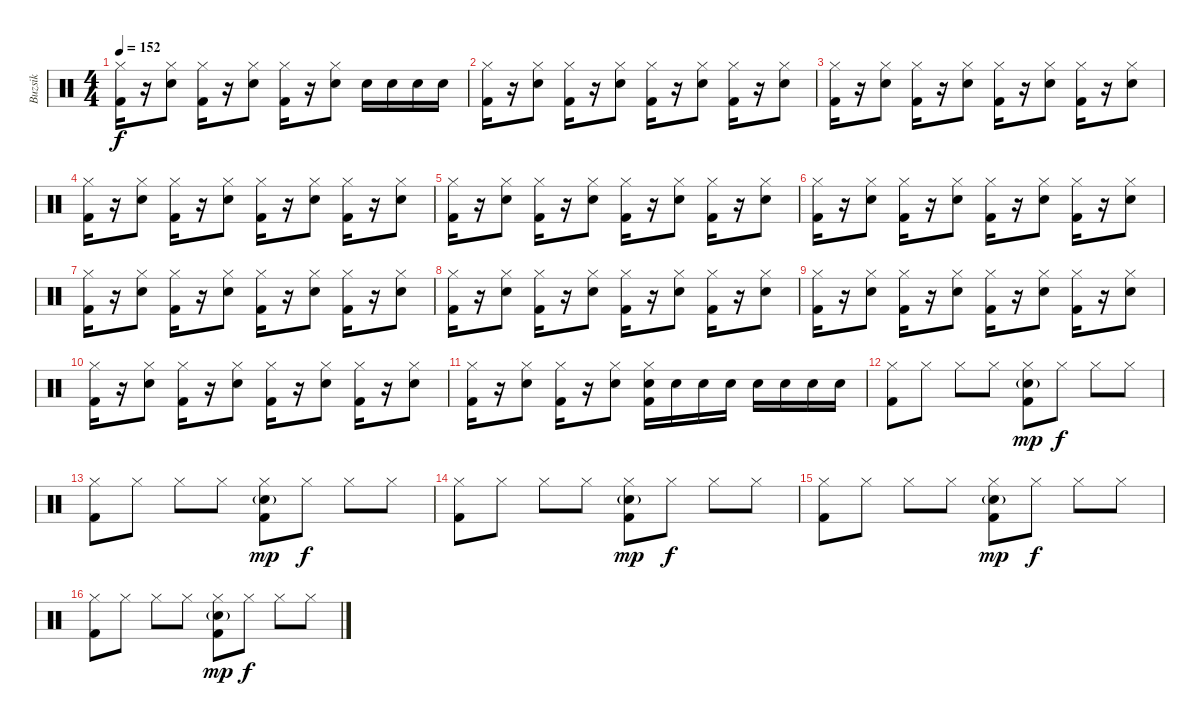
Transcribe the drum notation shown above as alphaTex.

\track ("Buzsik" "Buzsik") {instrument percussion}
\staff {score}
\articulation defaults
\ts (4 4)
\tempo 152
\clef neutral
\ks c
("Hi-Hat (closed)" "Kick (hit) 2").16{dy f} r.16 ("Hi-Hat (closed)" "Electric Snare (hit)").8 ("Hi-Hat (closed)" "Kick (hit) 2").16 r.16 ("Hi-Hat (closed)" "Electric Snare (hit)").8 ("Hi-Hat (closed)" "Kick (hit) 2").16 r.16 ("Hi-Hat (closed)" "Electric Snare (hit)").8 "Electric Snare (hit)".16 "Electric Snare (hit)".16 "Electric Snare (hit)".16 "Electric Snare (hit)".16 |
("Hi-Hat (closed)" "Kick (hit) 2").16 r.16 ("Hi-Hat (closed)" "Electric Snare (hit)").8 ("Hi-Hat (closed)" "Kick (hit) 2").16 r.16 ("Hi-Hat (closed)" "Electric Snare (hit)").8 ("Hi-Hat (closed)" "Kick (hit) 2").16 r.16 ("Hi-Hat (closed)" "Electric Snare (hit)").8 ("Hi-Hat (closed)" "Kick (hit) 2").16 r.16 ("Hi-Hat (closed)" "Electric Snare (hit)").8 |
("Hi-Hat (closed)" "Kick (hit) 2").16 r.16 ("Hi-Hat (closed)" "Electric Snare (hit)").8 ("Hi-Hat (closed)" "Kick (hit) 2").16 r.16 ("Hi-Hat (closed)" "Electric Snare (hit)").8 ("Hi-Hat (closed)" "Kick (hit) 2").16 r.16 ("Hi-Hat (closed)" "Electric Snare (hit)").8 ("Hi-Hat (closed)" "Kick (hit) 2").16 r.16 ("Hi-Hat (closed)" "Electric Snare (hit)").8 |
("Hi-Hat (closed)" "Kick (hit) 2").16 r.16 ("Hi-Hat (closed)" "Electric Snare (hit)").8 ("Hi-Hat (closed)" "Kick (hit) 2").16 r.16 ("Hi-Hat (closed)" "Electric Snare (hit)").8 ("Hi-Hat (closed)" "Kick (hit) 2").16 r.16 ("Hi-Hat (closed)" "Electric Snare (hit)").8 ("Hi-Hat (closed)" "Kick (hit) 2").16 r.16 ("Hi-Hat (closed)" "Electric Snare (hit)").8 |
("Hi-Hat (closed)" "Kick (hit) 2").16 r.16 ("Hi-Hat (closed)" "Electric Snare (hit)").8 ("Hi-Hat (closed)" "Kick (hit) 2").16 r.16 ("Hi-Hat (closed)" "Electric Snare (hit)").8 ("Hi-Hat (closed)" "Kick (hit) 2").16 r.16 ("Hi-Hat (closed)" "Electric Snare (hit)").8 ("Hi-Hat (closed)" "Kick (hit) 2").16 r.16 ("Hi-Hat (closed)" "Electric Snare (hit)").8 |
("Hi-Hat (closed)" "Kick (hit) 2").16 r.16 ("Hi-Hat (closed)" "Electric Snare (hit)").8 ("Hi-Hat (closed)" "Kick (hit) 2").16 r.16 ("Hi-Hat (closed)" "Electric Snare (hit)").8 ("Hi-Hat (closed)" "Kick (hit) 2").16 r.16 ("Hi-Hat (closed)" "Electric Snare (hit)").8 ("Hi-Hat (closed)" "Kick (hit) 2").16 r.16 ("Hi-Hat (closed)" "Electric Snare (hit)").8 |
("Hi-Hat (closed)" "Kick (hit) 2").16 r.16 ("Hi-Hat (closed)" "Electric Snare (hit)").8 ("Hi-Hat (closed)" "Kick (hit) 2").16 r.16 ("Hi-Hat (closed)" "Electric Snare (hit)").8 ("Hi-Hat (closed)" "Kick (hit) 2").16 r.16 ("Hi-Hat (closed)" "Electric Snare (hit)").8 ("Hi-Hat (closed)" "Kick (hit) 2").16 r.16 ("Hi-Hat (closed)" "Electric Snare (hit)").8 |
("Hi-Hat (closed)" "Kick (hit) 2").16 r.16 ("Hi-Hat (closed)" "Electric Snare (hit)").8 ("Hi-Hat (closed)" "Kick (hit) 2").16 r.16 ("Hi-Hat (closed)" "Electric Snare (hit)").8 ("Hi-Hat (closed)" "Kick (hit) 2").16 r.16 ("Hi-Hat (closed)" "Electric Snare (hit)").8 ("Hi-Hat (closed)" "Kick (hit) 2").16 r.16 ("Hi-Hat (closed)" "Electric Snare (hit)").8 |
("Hi-Hat (closed)" "Kick (hit) 2").16 r.16 ("Hi-Hat (closed)" "Electric Snare (hit)").8 ("Hi-Hat (closed)" "Kick (hit) 2").16 r.16 ("Hi-Hat (closed)" "Electric Snare (hit)").8 ("Hi-Hat (closed)" "Kick (hit) 2").16 r.16 ("Hi-Hat (closed)" "Electric Snare (hit)").8 ("Hi-Hat (closed)" "Kick (hit) 2").16 r.16 ("Hi-Hat (closed)" "Electric Snare (hit)").8 |
("Hi-Hat (closed)" "Kick (hit) 2").16 r.16 ("Hi-Hat (closed)" "Electric Snare (hit)").8 ("Hi-Hat (closed)" "Kick (hit) 2").16 r.16 ("Hi-Hat (closed)" "Electric Snare (hit)").8 ("Hi-Hat (closed)" "Kick (hit) 2").16 r.16 ("Hi-Hat (closed)" "Electric Snare (hit)").8 ("Hi-Hat (closed)" "Kick (hit) 2").16 r.16 ("Hi-Hat (closed)" "Electric Snare (hit)").8 |
("Hi-Hat (closed)" "Kick (hit) 2").16 r.16 ("Hi-Hat (closed)" "Electric Snare (hit)").8 ("Hi-Hat (closed)" "Kick (hit) 2").16 r.16 ("Hi-Hat (closed)" "Electric Snare (hit)").8 ("Hi-Hat (closed)" "Kick (hit) 2" "Electric Snare (hit)").16 "Electric Snare (hit)".16 "Electric Snare (hit)".16 "Electric Snare (hit)".16 "Electric Snare (hit)".16 "Electric Snare (hit)".16 "Electric Snare (hit)".16 "Electric Snare (hit)".16 |
("Hi-Hat (closed)" "Kick (hit) 2").8 "Hi-Hat (closed)".8 "Hi-Hat (closed)".8 "Hi-Hat (closed)".8 ("Hi-Hat (closed)" "Snare (hit) 2"{g} "Kick (hit) 2").8{dy mp} "Hi-Hat (closed)".8{dy f} "Hi-Hat (closed)".8 "Hi-Hat (closed)".8 |
("Hi-Hat (closed)" "Kick (hit) 2").8 "Hi-Hat (closed)".8 "Hi-Hat (closed)".8 "Hi-Hat (closed)".8 ("Hi-Hat (closed)" "Snare (hit) 2"{g} "Kick (hit) 2").8{dy mp} "Hi-Hat (closed)".8{dy f} "Hi-Hat (closed)".8 "Hi-Hat (closed)".8 |
("Hi-Hat (closed)" "Kick (hit) 2").8 "Hi-Hat (closed)".8 "Hi-Hat (closed)".8 "Hi-Hat (closed)".8 ("Hi-Hat (closed)" "Snare (hit) 2"{g} "Kick (hit) 2").8{dy mp} "Hi-Hat (closed)".8{dy f} "Hi-Hat (closed)".8 "Hi-Hat (closed)".8 |
("Hi-Hat (closed)" "Kick (hit) 2").8 "Hi-Hat (closed)".8 "Hi-Hat (closed)".8 "Hi-Hat (closed)".8 ("Hi-Hat (closed)" "Snare (hit) 2"{g} "Kick (hit) 2").8{dy mp} "Hi-Hat (closed)".8{dy f} "Hi-Hat (closed)".8 "Hi-Hat (closed)".8 |
("Hi-Hat (closed)" "Kick (hit) 2").8 "Hi-Hat (closed)".8 "Hi-Hat (closed)".8 "Hi-Hat (closed)".8 ("Hi-Hat (closed)" "Snare (hit) 2"{g} "Kick (hit) 2").8{dy mp} "Hi-Hat (closed)".8{dy f} "Hi-Hat (closed)".8 "Hi-Hat (closed)".8
